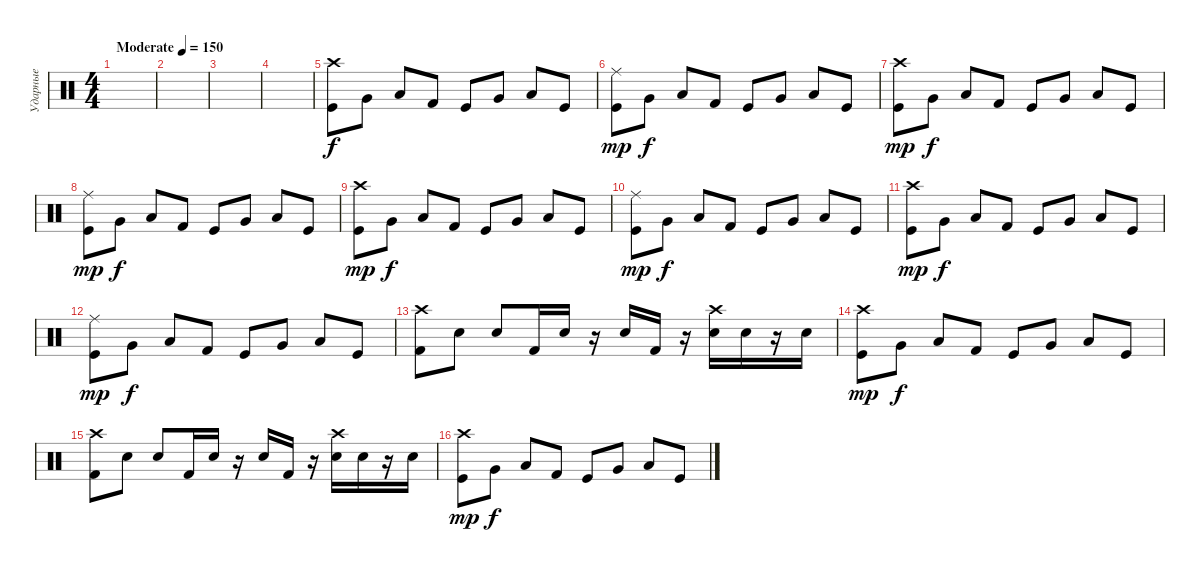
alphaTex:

\track ("Ударные" "Ударные") {instrument percussion}
\staff {score}
\articulation defaults
\ts (4 4)
\tempo (150 "Moderate")
\clef neutral
\ks c
|
|
|
|
("Kick (hit)" "Crash high (hit)").8 "Very Low Tom (hit)".8{dy f} "Low Floor Tom (hit)".8 "Kick (hit) 2".8 "Kick (hit)".8 "Very Low Tom (hit)".8 "Low Floor Tom (hit)".8 "Kick (hit)".8 |
("Kick (hit)" "Ride (middle)").8{dy mp} "Very Low Tom (hit)".8{dy f} "Low Floor Tom (hit)".8 "Kick (hit) 2".8 "Kick (hit)".8 "Very Low Tom (hit)".8 "Low Floor Tom (hit)".8 "Kick (hit)".8 |
("Kick (hit)" "Crash high (hit)").8{dy mp} "Very Low Tom (hit)".8{dy f} "Low Floor Tom (hit)".8 "Kick (hit) 2".8 "Kick (hit)".8 "Very Low Tom (hit)".8 "Low Floor Tom (hit)".8 "Kick (hit)".8 |
("Kick (hit)" "Ride (middle)").8{dy mp} "Very Low Tom (hit)".8{dy f} "Low Floor Tom (hit)".8 "Kick (hit) 2".8 "Kick (hit)".8 "Very Low Tom (hit)".8 "Low Floor Tom (hit)".8 "Kick (hit)".8 |
("Kick (hit)" "Crash high (hit)").8{dy mp} "Very Low Tom (hit)".8{dy f} "Low Floor Tom (hit)".8 "Kick (hit) 2".8 "Kick (hit)".8 "Very Low Tom (hit)".8 "Low Floor Tom (hit)".8 "Kick (hit)".8 |
("Kick (hit)" "Ride (middle)").8{dy mp} "Very Low Tom (hit)".8{dy f} "Low Floor Tom (hit)".8 "Kick (hit) 2".8 "Kick (hit)".8 "Very Low Tom (hit)".8 "Low Floor Tom (hit)".8 "Kick (hit)".8 |
("Kick (hit)" "Crash high (hit)").8{dy mp} "Very Low Tom (hit)".8{dy f} "Low Floor Tom (hit)".8 "Kick (hit) 2".8 "Kick (hit)".8 "Very Low Tom (hit)".8 "Low Floor Tom (hit)".8 "Kick (hit)".8 |
("Kick (hit)" "Ride (middle)").8{dy mp} "Very Low Tom (hit)".8{dy f} "Low Floor Tom (hit)".8 "Kick (hit) 2".8 "Kick (hit)".8 "Very Low Tom (hit)".8 "Low Floor Tom (hit)".8 "Kick (hit)".8 |
("Crash high (hit)" "Kick (hit) 2").8 "Snare (hit) 2".8 "Snare (hit) 2".8 "Kick (hit) 2".16 "Snare (hit) 2".16 r.16 "Snare (hit) 2".16 "Kick (hit) 2".16 r.16 ("Crash high (hit)" "Snare (hit) 2").16 "Snare (hit) 2".16 r.16 "Snare (hit) 2".16 |
("Kick (hit)" "Crash high (hit)").8{dy mp} "Very Low Tom (hit)".8{dy f} "Low Floor Tom (hit)".8 "Kick (hit) 2".8 "Kick (hit)".8 "Very Low Tom (hit)".8 "Low Floor Tom (hit)".8 "Kick (hit)".8 |
("Crash high (hit)" "Kick (hit) 2").8 "Snare (hit) 2".8 "Snare (hit) 2".8 "Kick (hit) 2".16 "Snare (hit) 2".16 r.16 "Snare (hit) 2".16 "Kick (hit) 2".16 r.16 ("Crash high (hit)" "Snare (hit) 2").16 "Snare (hit) 2".16 r.16 "Snare (hit) 2".16 |
("Kick (hit)" "Crash high (hit)").8{dy mp} "Very Low Tom (hit)".8{dy f} "Low Floor Tom (hit)".8 "Kick (hit) 2".8 "Kick (hit)".8 "Very Low Tom (hit)".8 "Low Floor Tom (hit)".8 "Kick (hit)".8
